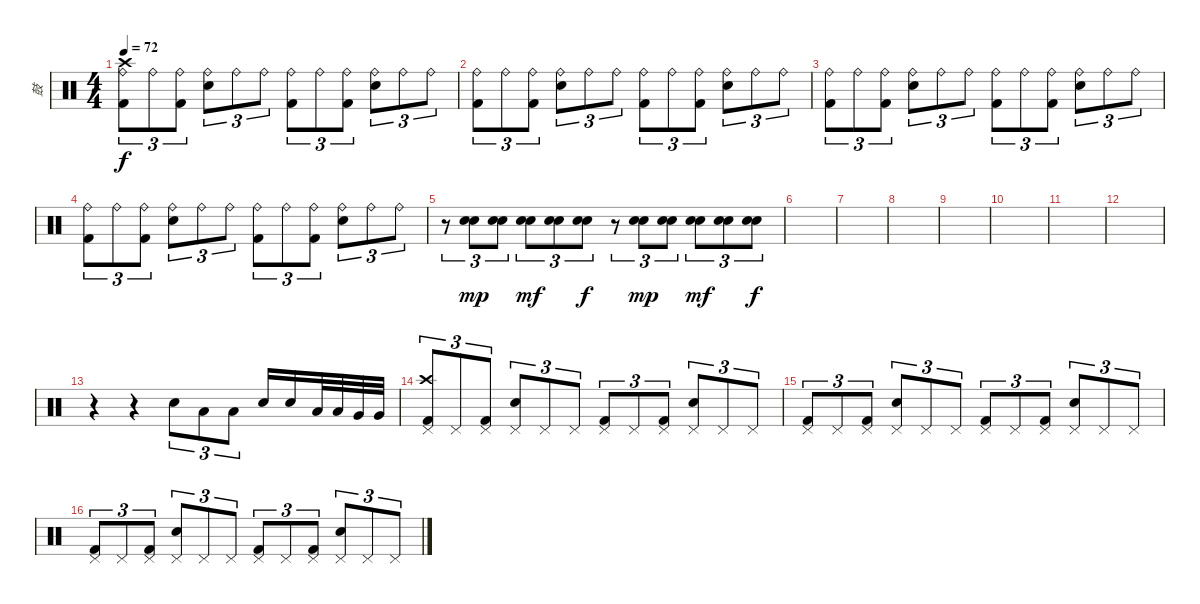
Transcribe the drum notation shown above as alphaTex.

\track ("鼓" "鼓") {instrument percussion}
\staff {score}
\articulation defaults
\ts (4 4)
\tempo 72
\clef neutral
\ks c
("Ride (bell)" "Kick (hit) 2" "Crash high (hit)").8{tu (3 2) dy f} "Ride (bell)".8{tu (3 2)} ("Ride (bell)" "Kick (hit) 2").8{tu (3 2)} ("Ride (bell)" "Electric Snare (hit)").8{tu (3 2)} "Ride (bell)".8{tu (3 2)} "Ride (bell)".8{tu (3 2)} ("Ride (bell)" "Kick (hit) 2").8{tu (3 2)} "Ride (bell)".8{tu (3 2)} ("Ride (bell)" "Kick (hit) 2").8{tu (3 2)} ("Ride (bell)" "Electric Snare (hit)").8{tu (3 2)} "Ride (bell)".8{tu (3 2)} "Ride (bell)".8{tu (3 2)} |
("Ride (bell)" "Kick (hit) 2").8{tu (3 2)} "Ride (bell)".8{tu (3 2)} ("Ride (bell)" "Kick (hit) 2").8{tu (3 2)} ("Ride (bell)" "Electric Snare (hit)").8{tu (3 2)} "Ride (bell)".8{tu (3 2)} "Ride (bell)".8{tu (3 2)} ("Ride (bell)" "Kick (hit) 2").8{tu (3 2)} "Ride (bell)".8{tu (3 2)} ("Ride (bell)" "Kick (hit) 2").8{tu (3 2)} ("Ride (bell)" "Electric Snare (hit)").8{tu (3 2)} "Ride (bell)".8{tu (3 2)} "Ride (bell)".8{tu (3 2)} |
("Ride (bell)" "Kick (hit) 2").8{tu (3 2)} "Ride (bell)".8{tu (3 2)} ("Ride (bell)" "Kick (hit) 2").8{tu (3 2)} ("Ride (bell)" "Electric Snare (hit)").8{tu (3 2)} "Ride (bell)".8{tu (3 2)} "Ride (bell)".8{tu (3 2)} ("Ride (bell)" "Kick (hit) 2").8{tu (3 2)} "Ride (bell)".8{tu (3 2)} ("Ride (bell)" "Kick (hit) 2").8{tu (3 2)} ("Ride (bell)" "Electric Snare (hit)").8{tu (3 2)} "Ride (bell)".8{tu (3 2)} "Ride (bell)".8{tu (3 2)} |
("Ride (bell)" "Kick (hit) 2").8{tu (3 2)} "Ride (bell)".8{tu (3 2)} ("Ride (bell)" "Kick (hit) 2").8{tu (3 2)} ("Ride (bell)" "Electric Snare (hit)").8{tu (3 2)} "Ride (bell)".8{tu (3 2)} "Ride (bell)".8{tu (3 2)} ("Ride (bell)" "Kick (hit) 2").8{tu (3 2)} "Ride (bell)".8{tu (3 2)} ("Ride (bell)" "Kick (hit) 2").8{tu (3 2)} ("Ride (bell)" "Electric Snare (hit)").8{tu (3 2)} "Ride (bell)".8{tu (3 2)} "Ride (bell)".8{tu (3 2)} |
r.8{tu (3 2)} ("Electric Snare (hit)" "Electric Snare (hit)").8{tu (3 2) dy mp} ("Electric Snare (hit)" "Electric Snare (hit)").8{tu (3 2)} ("Electric Snare (hit)" "Electric Snare (hit)").8{tu (3 2) dy mf} ("Electric Snare (hit)" "Electric Snare (hit)").8{tu (3 2)} ("Electric Snare (hit)" "Electric Snare (hit)").8{tu (3 2) dy f} r.8{tu (3 2)} ("Electric Snare (hit)" "Electric Snare (hit)").8{tu (3 2) dy mp} ("Electric Snare (hit)" "Electric Snare (hit)").8{tu (3 2)} ("Electric Snare (hit)" "Electric Snare (hit)").8{tu (3 2) dy mf} ("Electric Snare (hit)" "Electric Snare (hit)").8{tu (3 2)} ("Electric Snare (hit)" "Electric Snare (hit)").8{tu (3 2) dy f} |
|
|
|
|
|
|
|
r.4 r.4 "Electric Snare (hit)".8{tu (3 2)} "Low Tom (hit)".8{tu (3 2)} "Low Tom (hit)".8{tu (3 2)} "Electric Snare (hit)".16 "Electric Snare (hit)".16 "Low Tom (hit)".32 "Low Tom (hit)".32 "Very Low Tom (hit)".32 "Very Low Tom (hit)".32 |
("Pedal Hi-Hat (hit)" "Kick (hit) 2" "Crash high (hit)").8{tu (3 2)} "Pedal Hi-Hat (hit)".8{tu (3 2)} ("Pedal Hi-Hat (hit)" "Kick (hit) 2").8{tu (3 2)} ("Pedal Hi-Hat (hit)" "Electric Snare (hit)").8{tu (3 2)} "Pedal Hi-Hat (hit)".8{tu (3 2)} "Pedal Hi-Hat (hit)".8{tu (3 2)} ("Pedal Hi-Hat (hit)" "Kick (hit) 2").8{tu (3 2)} "Pedal Hi-Hat (hit)".8{tu (3 2)} ("Pedal Hi-Hat (hit)" "Kick (hit) 2").8{tu (3 2)} ("Pedal Hi-Hat (hit)" "Electric Snare (hit)").8{tu (3 2)} "Pedal Hi-Hat (hit)".8{tu (3 2)} "Pedal Hi-Hat (hit)".8{tu (3 2)} |
("Pedal Hi-Hat (hit)" "Kick (hit) 2").8{tu (3 2)} "Pedal Hi-Hat (hit)".8{tu (3 2)} ("Pedal Hi-Hat (hit)" "Kick (hit) 2").8{tu (3 2)} ("Pedal Hi-Hat (hit)" "Electric Snare (hit)").8{tu (3 2)} "Pedal Hi-Hat (hit)".8{tu (3 2)} "Pedal Hi-Hat (hit)".8{tu (3 2)} ("Pedal Hi-Hat (hit)" "Kick (hit) 2").8{tu (3 2)} "Pedal Hi-Hat (hit)".8{tu (3 2)} ("Pedal Hi-Hat (hit)" "Kick (hit) 2").8{tu (3 2)} ("Pedal Hi-Hat (hit)" "Electric Snare (hit)").8{tu (3 2)} "Pedal Hi-Hat (hit)".8{tu (3 2)} "Pedal Hi-Hat (hit)".8{tu (3 2)} |
("Pedal Hi-Hat (hit)" "Kick (hit) 2").8{tu (3 2)} "Pedal Hi-Hat (hit)".8{tu (3 2)} ("Pedal Hi-Hat (hit)" "Kick (hit) 2").8{tu (3 2)} ("Pedal Hi-Hat (hit)" "Electric Snare (hit)").8{tu (3 2)} "Pedal Hi-Hat (hit)".8{tu (3 2)} "Pedal Hi-Hat (hit)".8{tu (3 2)} ("Pedal Hi-Hat (hit)" "Kick (hit) 2").8{tu (3 2)} "Pedal Hi-Hat (hit)".8{tu (3 2)} ("Pedal Hi-Hat (hit)" "Kick (hit) 2").8{tu (3 2)} ("Pedal Hi-Hat (hit)" "Electric Snare (hit)").8{tu (3 2)} "Pedal Hi-Hat (hit)".8{tu (3 2)} "Pedal Hi-Hat (hit)".8{tu (3 2)}
